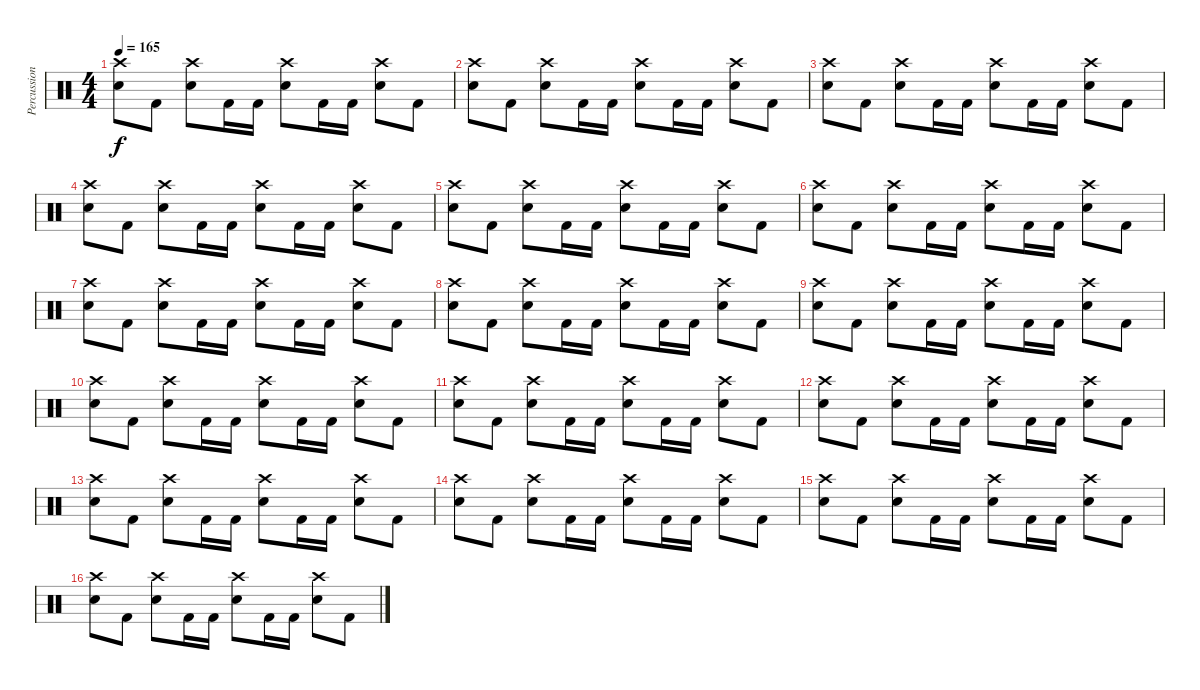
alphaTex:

\track ("Percussion" "Percussion") {instrument percussion}
\staff {score}
\articulation defaults
\ts (4 4)
\tempo 165
\clef neutral
\ks c
("Crash high (hit)" "Electric Snare (hit)").8{dy f} "Kick (hit) 2".8 ("Crash high (hit)" "Electric Snare (hit)").8 "Kick (hit) 2".16 "Kick (hit) 2".16 ("Crash high (hit)" "Electric Snare (hit)").8 "Kick (hit) 2".16 "Kick (hit) 2".16 ("Crash high (hit)" "Electric Snare (hit)").8 "Kick (hit) 2".8 |
("Crash high (hit)" "Electric Snare (hit)").8 "Kick (hit) 2".8 ("Crash high (hit)" "Electric Snare (hit)").8 "Kick (hit) 2".16 "Kick (hit) 2".16 ("Crash high (hit)" "Electric Snare (hit)").8 "Kick (hit) 2".16 "Kick (hit) 2".16 ("Crash high (hit)" "Electric Snare (hit)").8 "Kick (hit) 2".8 |
("Crash high (hit)" "Electric Snare (hit)").8 "Kick (hit) 2".8 ("Crash high (hit)" "Electric Snare (hit)").8 "Kick (hit) 2".16 "Kick (hit) 2".16 ("Crash high (hit)" "Electric Snare (hit)").8 "Kick (hit) 2".16 "Kick (hit) 2".16 ("Crash high (hit)" "Electric Snare (hit)").8 "Kick (hit) 2".8 |
("Crash high (hit)" "Electric Snare (hit)").8 "Kick (hit) 2".8 ("Crash high (hit)" "Electric Snare (hit)").8 "Kick (hit) 2".16 "Kick (hit) 2".16 ("Crash high (hit)" "Electric Snare (hit)").8 "Kick (hit) 2".16 "Kick (hit) 2".16 ("Crash high (hit)" "Electric Snare (hit)").8 "Kick (hit) 2".8 |
("Crash high (hit)" "Electric Snare (hit)").8 "Kick (hit) 2".8 ("Crash high (hit)" "Electric Snare (hit)").8 "Kick (hit) 2".16 "Kick (hit) 2".16 ("Crash high (hit)" "Electric Snare (hit)").8 "Kick (hit) 2".16 "Kick (hit) 2".16 ("Crash high (hit)" "Electric Snare (hit)").8 "Kick (hit) 2".8 |
("Crash high (hit)" "Electric Snare (hit)").8 "Kick (hit) 2".8 ("Crash high (hit)" "Electric Snare (hit)").8 "Kick (hit) 2".16 "Kick (hit) 2".16 ("Crash high (hit)" "Electric Snare (hit)").8 "Kick (hit) 2".16 "Kick (hit) 2".16 ("Crash high (hit)" "Electric Snare (hit)").8 "Kick (hit) 2".8 |
("Crash high (hit)" "Electric Snare (hit)").8 "Kick (hit) 2".8 ("Crash high (hit)" "Electric Snare (hit)").8 "Kick (hit) 2".16 "Kick (hit) 2".16 ("Crash high (hit)" "Electric Snare (hit)").8 "Kick (hit) 2".16 "Kick (hit) 2".16 ("Crash high (hit)" "Electric Snare (hit)").8 "Kick (hit) 2".8 |
("Crash high (hit)" "Electric Snare (hit)").8 "Kick (hit) 2".8 ("Crash high (hit)" "Electric Snare (hit)").8 "Kick (hit) 2".16 "Kick (hit) 2".16 ("Crash high (hit)" "Electric Snare (hit)").8 "Kick (hit) 2".16 "Kick (hit) 2".16 ("Crash high (hit)" "Electric Snare (hit)").8 "Kick (hit) 2".8 |
("Crash high (hit)" "Electric Snare (hit)").8 "Kick (hit) 2".8 ("Crash high (hit)" "Electric Snare (hit)").8 "Kick (hit) 2".16 "Kick (hit) 2".16 ("Crash high (hit)" "Electric Snare (hit)").8 "Kick (hit) 2".16 "Kick (hit) 2".16 ("Crash high (hit)" "Electric Snare (hit)").8 "Kick (hit) 2".8 |
("Crash high (hit)" "Electric Snare (hit)").8 "Kick (hit) 2".8 ("Crash high (hit)" "Electric Snare (hit)").8 "Kick (hit) 2".16 "Kick (hit) 2".16 ("Crash high (hit)" "Electric Snare (hit)").8 "Kick (hit) 2".16 "Kick (hit) 2".16 ("Crash high (hit)" "Electric Snare (hit)").8 "Kick (hit) 2".8 |
("Crash high (hit)" "Electric Snare (hit)").8 "Kick (hit) 2".8 ("Crash high (hit)" "Electric Snare (hit)").8 "Kick (hit) 2".16 "Kick (hit) 2".16 ("Crash high (hit)" "Electric Snare (hit)").8 "Kick (hit) 2".16 "Kick (hit) 2".16 ("Crash high (hit)" "Electric Snare (hit)").8 "Kick (hit) 2".8 |
("Crash high (hit)" "Electric Snare (hit)").8 "Kick (hit) 2".8 ("Crash high (hit)" "Electric Snare (hit)").8 "Kick (hit) 2".16 "Kick (hit) 2".16 ("Crash high (hit)" "Electric Snare (hit)").8 "Kick (hit) 2".16 "Kick (hit) 2".16 ("Crash high (hit)" "Electric Snare (hit)").8 "Kick (hit) 2".8 |
("Crash high (hit)" "Electric Snare (hit)").8 "Kick (hit) 2".8 ("Crash high (hit)" "Electric Snare (hit)").8 "Kick (hit) 2".16 "Kick (hit) 2".16 ("Crash high (hit)" "Electric Snare (hit)").8 "Kick (hit) 2".16 "Kick (hit) 2".16 ("Crash high (hit)" "Electric Snare (hit)").8 "Kick (hit) 2".8 |
("Crash high (hit)" "Electric Snare (hit)").8 "Kick (hit) 2".8 ("Crash high (hit)" "Electric Snare (hit)").8 "Kick (hit) 2".16 "Kick (hit) 2".16 ("Crash high (hit)" "Electric Snare (hit)").8 "Kick (hit) 2".16 "Kick (hit) 2".16 ("Crash high (hit)" "Electric Snare (hit)").8 "Kick (hit) 2".8 |
("Crash high (hit)" "Electric Snare (hit)").8 "Kick (hit) 2".8 ("Crash high (hit)" "Electric Snare (hit)").8 "Kick (hit) 2".16 "Kick (hit) 2".16 ("Crash high (hit)" "Electric Snare (hit)").8 "Kick (hit) 2".16 "Kick (hit) 2".16 ("Crash high (hit)" "Electric Snare (hit)").8 "Kick (hit) 2".8 |
("Crash high (hit)" "Electric Snare (hit)").8 "Kick (hit) 2".8 ("Crash high (hit)" "Electric Snare (hit)").8 "Kick (hit) 2".16 "Kick (hit) 2".16 ("Crash high (hit)" "Electric Snare (hit)").8 "Kick (hit) 2".16 "Kick (hit) 2".16 ("Crash high (hit)" "Electric Snare (hit)").8 "Kick (hit) 2".8
